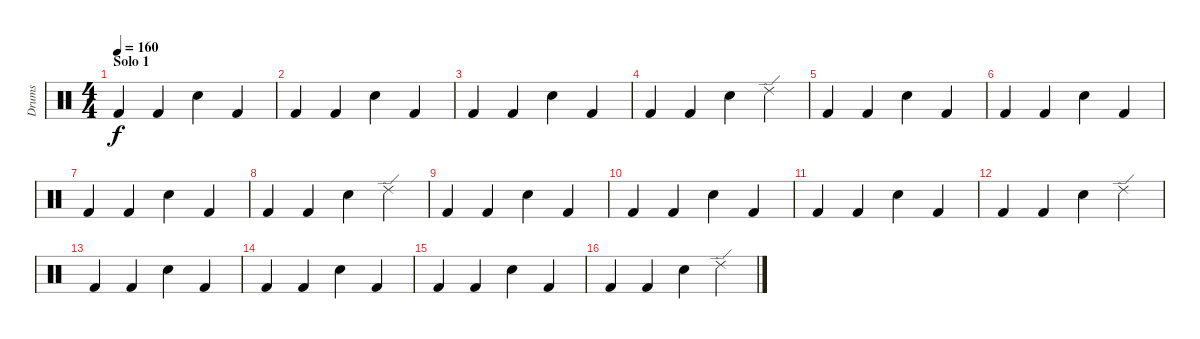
\track ("Drums" "Drums") {instrument percussion}
\staff {score}
\articulation defaults
\ts (4 4)
\section ("" "Solo 1")
\tempo 160
\clef neutral
\ks c "Kick (hit) 2".4{dy f} "Kick (hit) 2".4 "Snare (hit) 2".4 "Kick (hit) 2".4
|
"Kick (hit) 2".4 "Kick (hit) 2".4 "Snare (hit) 2".4 "Kick (hit) 2".4 |
"Kick (hit) 2".4 "Kick (hit) 2".4 "Snare (hit) 2".4 "Kick (hit) 2".4 |
"Kick (hit) 2".4 "Kick (hit) 2".4 "Snare (hit) 2".4 "Ride (edge) 2".4 |
"Kick (hit) 2".4 "Kick (hit) 2".4 "Snare (hit) 2".4 "Kick (hit) 2".4 |
"Kick (hit) 2".4 "Kick (hit) 2".4 "Snare (hit) 2".4 "Kick (hit) 2".4 |
"Kick (hit) 2".4 "Kick (hit) 2".4 "Snare (hit) 2".4 "Kick (hit) 2".4 |
"Kick (hit) 2".4 "Kick (hit) 2".4 "Snare (hit) 2".4 "Ride (edge) 2".4 |
"Kick (hit) 2".4 "Kick (hit) 2".4 "Snare (hit) 2".4 "Kick (hit) 2".4 |
"Kick (hit) 2".4 "Kick (hit) 2".4 "Snare (hit) 2".4 "Kick (hit) 2".4 |
"Kick (hit) 2".4 "Kick (hit) 2".4 "Snare (hit) 2".4 "Kick (hit) 2".4 |
"Kick (hit) 2".4 "Kick (hit) 2".4 "Snare (hit) 2".4 "Ride (edge) 2".4 |
"Kick (hit) 2".4 "Kick (hit) 2".4 "Snare (hit) 2".4 "Kick (hit) 2".4 |
"Kick (hit) 2".4 "Kick (hit) 2".4 "Snare (hit) 2".4 "Kick (hit) 2".4 |
"Kick (hit) 2".4 "Kick (hit) 2".4 "Snare (hit) 2".4 "Kick (hit) 2".4 |
"Kick (hit) 2".4 "Kick (hit) 2".4 "Snare (hit) 2".4 "Ride (edge) 2".4
